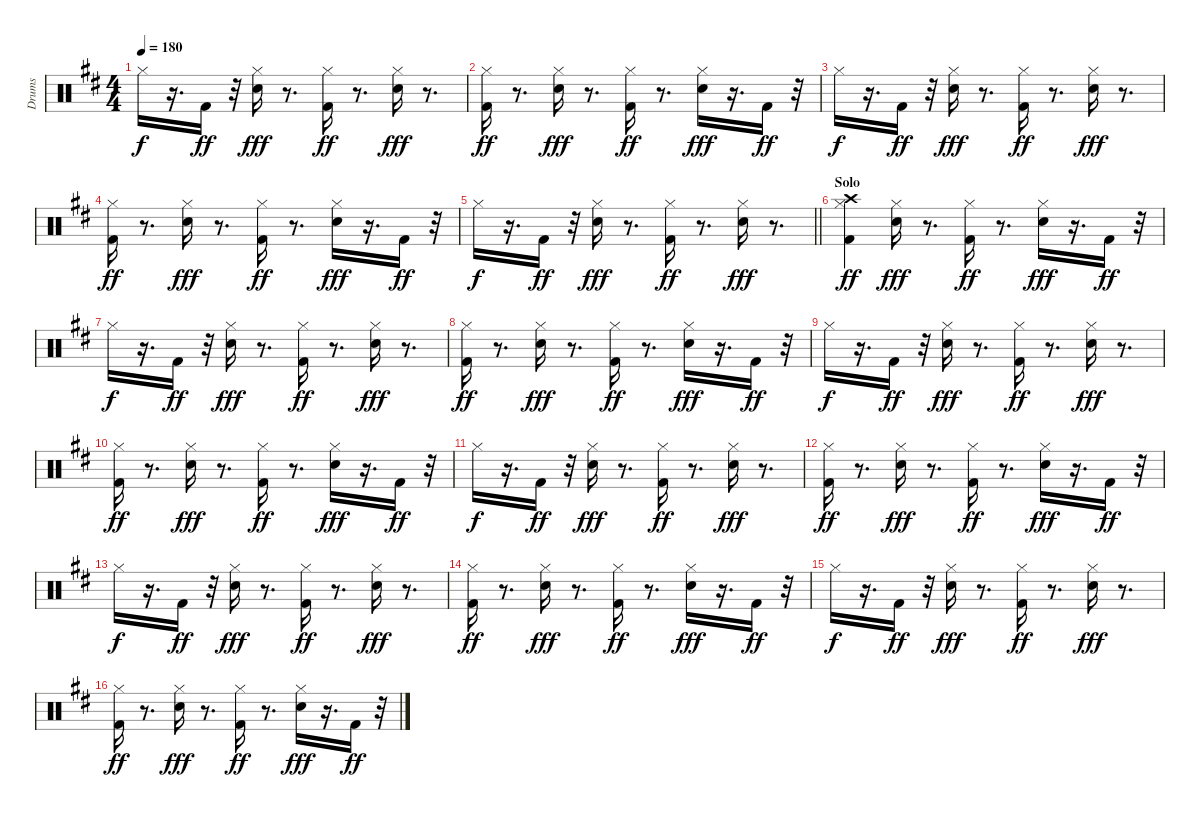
\track ("Drums" "Drums") {instrument percussion}
\staff {score}
\articulation defaults
\ts (4 4)
\tempo 180
\clef neutral
\ks bminor "Hi-Hat (closed)".16{dy f}
r.16{d} "Kick (hit) 2".16{dy ff} r.32 ("Snare (hit) 2" "Hi-Hat (closed)").16{dy fff} r.8{d} ("Kick (hit) 2" "Hi-Hat (closed)").16{dy ff} r.8{d} ("Snare (hit) 2" "Hi-Hat (closed)").16{dy fff} r.8{d} |
("Kick (hit) 2" "Hi-Hat (closed)").16{dy ff} r.8{d} ("Snare (hit) 2" "Hi-Hat (closed)").16{dy fff} r.8{d} ("Kick (hit) 2" "Hi-Hat (closed)").16{dy ff} r.8{d} ("Snare (hit) 2" "Hi-Hat (closed)").16{dy fff} r.16{d} "Kick (hit) 2".16{dy ff} r.32 |
"Hi-Hat (closed)".16{dy f} r.16{d} "Kick (hit) 2".16{dy ff} r.32 ("Snare (hit) 2" "Hi-Hat (closed)").16{dy fff} r.8{d} ("Kick (hit) 2" "Hi-Hat (closed)").16{dy ff} r.8{d} ("Snare (hit) 2" "Hi-Hat (closed)").16{dy fff} r.8{d} |
("Kick (hit) 2" "Hi-Hat (closed)").16{dy ff} r.8{d} ("Snare (hit) 2" "Hi-Hat (closed)").16{dy fff} r.8{d} ("Kick (hit) 2" "Hi-Hat (closed)").16{dy ff} r.8{d} ("Snare (hit) 2" "Hi-Hat (closed)").16{dy fff} r.16{d} "Kick (hit) 2".16{dy ff} r.32 |
\barLineRight lightlight "Hi-Hat (closed)".16{dy f}
r.16{d} "Kick (hit) 2".16{dy ff} r.32 ("Snare (hit) 2" "Hi-Hat (closed)").16{dy fff} r.8{d} ("Kick (hit) 2" "Hi-Hat (closed)").16{dy ff} r.8{d} ("Snare (hit) 2" "Hi-Hat (closed)").16{dy fff} r.8{d} |
\section ("" "Solo")
("Kick (hit) 2" "Hi-Hat (closed)" "Crash high (hit)").4{dy ff} ("Snare (hit) 2" "Hi-Hat (closed)").16{dy fff} r.8{d} ("Kick (hit) 2" "Hi-Hat (closed)").16{dy ff} r.8{d} ("Snare (hit) 2" "Hi-Hat (closed)").16{dy fff} r.16{d} "Kick (hit) 2".16{dy ff} r.32 |
"Hi-Hat (closed)".16{dy f} r.16{d} "Kick (hit) 2".16{dy ff} r.32 ("Snare (hit) 2" "Hi-Hat (closed)").16{dy fff} r.8{d} ("Kick (hit) 2" "Hi-Hat (closed)").16{dy ff} r.8{d} ("Snare (hit) 2" "Hi-Hat (closed)").16{dy fff} r.8{d} |
("Kick (hit) 2" "Hi-Hat (closed)").16{dy ff} r.8{d} ("Snare (hit) 2" "Hi-Hat (closed)").16{dy fff} r.8{d} ("Kick (hit) 2" "Hi-Hat (closed)").16{dy ff} r.8{d} ("Snare (hit) 2" "Hi-Hat (closed)").16{dy fff} r.16{d} "Kick (hit) 2".16{dy ff} r.32 |
"Hi-Hat (closed)".16{dy f} r.16{d} "Kick (hit) 2".16{dy ff} r.32 ("Snare (hit) 2" "Hi-Hat (closed)").16{dy fff} r.8{d} ("Kick (hit) 2" "Hi-Hat (closed)").16{dy ff} r.8{d} ("Snare (hit) 2" "Hi-Hat (closed)").16{dy fff} r.8{d} |
("Kick (hit) 2" "Hi-Hat (closed)").16{dy ff} r.8{d} ("Snare (hit) 2" "Hi-Hat (closed)").16{dy fff} r.8{d} ("Kick (hit) 2" "Hi-Hat (closed)").16{dy ff} r.8{d} ("Snare (hit) 2" "Hi-Hat (closed)").16{dy fff} r.16{d} "Kick (hit) 2".16{dy ff} r.32 |
"Hi-Hat (closed)".16{dy f} r.16{d} "Kick (hit) 2".16{dy ff} r.32 ("Snare (hit) 2" "Hi-Hat (closed)").16{dy fff} r.8{d} ("Kick (hit) 2" "Hi-Hat (closed)").16{dy ff} r.8{d} ("Snare (hit) 2" "Hi-Hat (closed)").16{dy fff} r.8{d} |
("Kick (hit) 2" "Hi-Hat (closed)").16{dy ff} r.8{d} ("Snare (hit) 2" "Hi-Hat (closed)").16{dy fff} r.8{d} ("Kick (hit) 2" "Hi-Hat (closed)").16{dy ff} r.8{d} ("Snare (hit) 2" "Hi-Hat (closed)").16{dy fff} r.16{d} "Kick (hit) 2".16{dy ff} r.32 |
"Hi-Hat (closed)".16{dy f} r.16{d} "Kick (hit) 2".16{dy ff} r.32 ("Snare (hit) 2" "Hi-Hat (closed)").16{dy fff} r.8{d} ("Kick (hit) 2" "Hi-Hat (closed)").16{dy ff} r.8{d} ("Snare (hit) 2" "Hi-Hat (closed)").16{dy fff} r.8{d} |
("Kick (hit) 2" "Hi-Hat (closed)").16{dy ff} r.8{d} ("Snare (hit) 2" "Hi-Hat (closed)").16{dy fff} r.8{d} ("Kick (hit) 2" "Hi-Hat (closed)").16{dy ff} r.8{d} ("Snare (hit) 2" "Hi-Hat (closed)").16{dy fff} r.16{d} "Kick (hit) 2".16{dy ff} r.32 |
"Hi-Hat (closed)".16{dy f} r.16{d} "Kick (hit) 2".16{dy ff} r.32 ("Snare (hit) 2" "Hi-Hat (closed)").16{dy fff} r.8{d} ("Kick (hit) 2" "Hi-Hat (closed)").16{dy ff} r.8{d} ("Snare (hit) 2" "Hi-Hat (closed)").16{dy fff} r.8{d} |
("Kick (hit) 2" "Hi-Hat (closed)").16{dy ff} r.8{d} ("Snare (hit) 2" "Hi-Hat (closed)").16{dy fff} r.8{d} ("Kick (hit) 2" "Hi-Hat (closed)").16{dy ff} r.8{d} ("Snare (hit) 2" "Hi-Hat (closed)").16{dy fff} r.16{d} "Kick (hit) 2".16{dy ff} r.32
